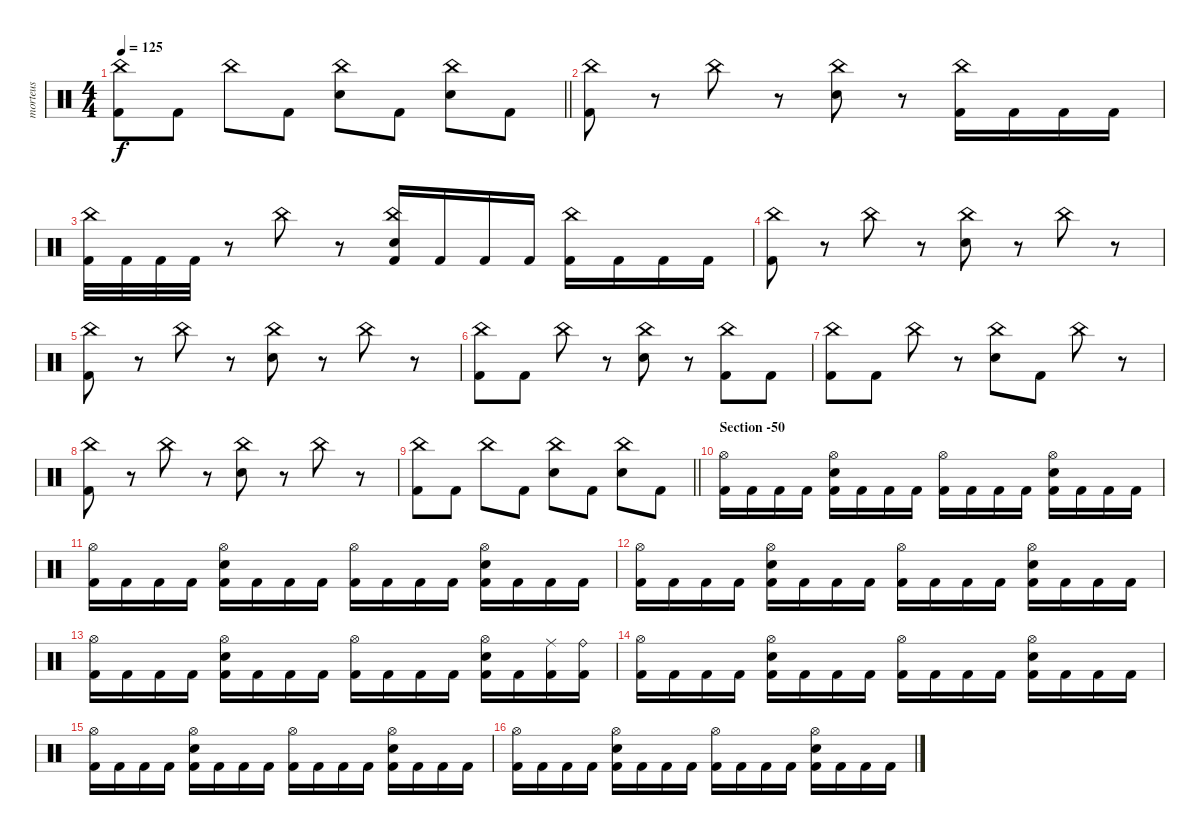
\track ("morteus" "morteus") {instrument percussion}
\staff {score}
\articulation defaults
\ts (4 4)
\tempo 125
\clef neutral
\barLineRight lightlight
\ks c
("Kick (hit) 2" "China (hit)").8{dy f} "Kick (hit) 2".8 "China (hit)".8 "Kick (hit) 2".8 ("Electric Snare (hit)" "China (hit)").8 "Kick (hit) 2".8 ("Electric Snare (hit)" "China (hit)").8 "Kick (hit) 2".8 |
("Kick (hit) 2" "China (hit)").8 r.8 "China (hit)".8 r.8 ("Electric Snare (hit)" "China (hit)").8 r.8 ("Kick (hit) 2" "China (hit)").16 "Kick (hit) 2".16 "Kick (hit) 2".16 "Kick (hit) 2".16 |
("Kick (hit) 2" "China (hit)").32 "Kick (hit) 2".32 "Kick (hit) 2".32 "Kick (hit) 2".32 r.8 "China (hit)".8 r.8 ("Kick (hit) 2" "Electric Snare (hit)" "China (hit)").16 "Kick (hit) 2".16 "Kick (hit) 2".16 "Kick (hit) 2".16 ("Kick (hit) 2" "China (hit)").16 "Kick (hit) 2".16 "Kick (hit) 2".16 "Kick (hit) 2".16 |
("Kick (hit) 2" "China (hit)").8 r.8 "China (hit)".8 r.8 ("Electric Snare (hit)" "China (hit)").8 r.8 "China (hit)".8 r.8 |
("Kick (hit) 2" "China (hit)").8 r.8 "China (hit)".8 r.8 ("Electric Snare (hit)" "China (hit)").8 r.8 "China (hit)".8 r.8 |
("Kick (hit) 2" "China (hit)").8 "Kick (hit) 2".8 "China (hit)".8 r.8 ("Electric Snare (hit)" "China (hit)").8 r.8 ("Kick (hit) 2" "China (hit)").8 "Kick (hit) 2".8 |
("Kick (hit) 2" "China (hit)").8 "Kick (hit) 2".8 "China (hit)".8 r.8 ("Electric Snare (hit)" "China (hit)").8 "Kick (hit) 2".8 "China (hit)".8 r.8 |
("Kick (hit) 2" "China (hit)").8 r.8 "China (hit)".8 r.8 ("Electric Snare (hit)" "China (hit)").8 r.8 "China (hit)".8 r.8 |
\barLineRight lightlight
("Kick (hit) 2" "China (hit)").8 "Kick (hit) 2".8 "China (hit)".8 "Kick (hit) 2".8 ("Electric Snare (hit)" "China (hit)").8 "Kick (hit) 2".8 ("Electric Snare (hit)" "China (hit)").8 "Kick (hit) 2".8 |
\section ("" "Section -50")
("Kick (hit) 2" "Hi-Hat (open)").16 "Kick (hit) 2".16 "Kick (hit) 2".16 "Kick (hit) 2".16 ("Kick (hit) 2" "Electric Snare (hit)" "Hi-Hat (open)").16 "Kick (hit) 2".16 "Kick (hit) 2".16 "Kick (hit) 2".16 ("Kick (hit) 2" "Hi-Hat (open)").16 "Kick (hit) 2".16 "Kick (hit) 2".16 "Kick (hit) 2".16 ("Kick (hit) 2" "Electric Snare (hit)" "Hi-Hat (open)").16 "Kick (hit) 2".16 "Kick (hit) 2".16 "Kick (hit) 2".16 |
("Kick (hit) 2" "Hi-Hat (open)").16 "Kick (hit) 2".16 "Kick (hit) 2".16 "Kick (hit) 2".16 ("Kick (hit) 2" "Electric Snare (hit)" "Hi-Hat (open)").16 "Kick (hit) 2".16 "Kick (hit) 2".16 "Kick (hit) 2".16 ("Kick (hit) 2" "Hi-Hat (open)").16 "Kick (hit) 2".16 "Kick (hit) 2".16 "Kick (hit) 2".16 ("Kick (hit) 2" "Electric Snare (hit)" "Hi-Hat (open)").16 "Kick (hit) 2".16 "Kick (hit) 2".16 "Kick (hit) 2".16 |
("Kick (hit) 2" "Hi-Hat (open)").16 "Kick (hit) 2".16 "Kick (hit) 2".16 "Kick (hit) 2".16 ("Kick (hit) 2" "Electric Snare (hit)" "Hi-Hat (open)").16 "Kick (hit) 2".16 "Kick (hit) 2".16 "Kick (hit) 2".16 ("Kick (hit) 2" "Hi-Hat (open)").16 "Kick (hit) 2".16 "Kick (hit) 2".16 "Kick (hit) 2".16 ("Kick (hit) 2" "Electric Snare (hit)" "Hi-Hat (open)").16 "Kick (hit) 2".16 "Kick (hit) 2".16 "Kick (hit) 2".16 |
("Kick (hit) 2" "Hi-Hat (open)").16 "Kick (hit) 2".16 "Kick (hit) 2".16 "Kick (hit) 2".16 ("Kick (hit) 2" "Electric Snare (hit)" "Hi-Hat (open)").16 "Kick (hit) 2".16 "Kick (hit) 2".16 "Kick (hit) 2".16 ("Kick (hit) 2" "Hi-Hat (open)").16 "Kick (hit) 2".16 "Kick (hit) 2".16 "Kick (hit) 2".16 ("Kick (hit) 2" "Electric Snare (hit)" "Hi-Hat (open)").16 "Kick (hit) 2".16 ("Kick (hit) 2" "Ride (middle)").16 ("Kick (hit) 2" "Ride (bell)").16 |
("Kick (hit) 2" "Hi-Hat (open)").16 "Kick (hit) 2".16 "Kick (hit) 2".16 "Kick (hit) 2".16 ("Kick (hit) 2" "Electric Snare (hit)" "Hi-Hat (open)").16 "Kick (hit) 2".16 "Kick (hit) 2".16 "Kick (hit) 2".16 ("Kick (hit) 2" "Hi-Hat (open)").16 "Kick (hit) 2".16 "Kick (hit) 2".16 "Kick (hit) 2".16 ("Kick (hit) 2" "Electric Snare (hit)" "Hi-Hat (open)").16 "Kick (hit) 2".16 "Kick (hit) 2".16 "Kick (hit) 2".16 |
("Kick (hit) 2" "Hi-Hat (open)").16 "Kick (hit) 2".16 "Kick (hit) 2".16 "Kick (hit) 2".16 ("Kick (hit) 2" "Electric Snare (hit)" "Hi-Hat (open)").16 "Kick (hit) 2".16 "Kick (hit) 2".16 "Kick (hit) 2".16 ("Kick (hit) 2" "Hi-Hat (open)").16 "Kick (hit) 2".16 "Kick (hit) 2".16 "Kick (hit) 2".16 ("Kick (hit) 2" "Electric Snare (hit)" "Hi-Hat (open)").16 "Kick (hit) 2".16 "Kick (hit) 2".16 "Kick (hit) 2".16 |
("Kick (hit) 2" "Hi-Hat (open)").16 "Kick (hit) 2".16 "Kick (hit) 2".16 "Kick (hit) 2".16 ("Kick (hit) 2" "Electric Snare (hit)" "Hi-Hat (open)").16 "Kick (hit) 2".16 "Kick (hit) 2".16 "Kick (hit) 2".16 ("Kick (hit) 2" "Hi-Hat (open)").16 "Kick (hit) 2".16 "Kick (hit) 2".16 "Kick (hit) 2".16 ("Kick (hit) 2" "Electric Snare (hit)" "Hi-Hat (open)").16 "Kick (hit) 2".16 "Kick (hit) 2".16 "Kick (hit) 2".16
